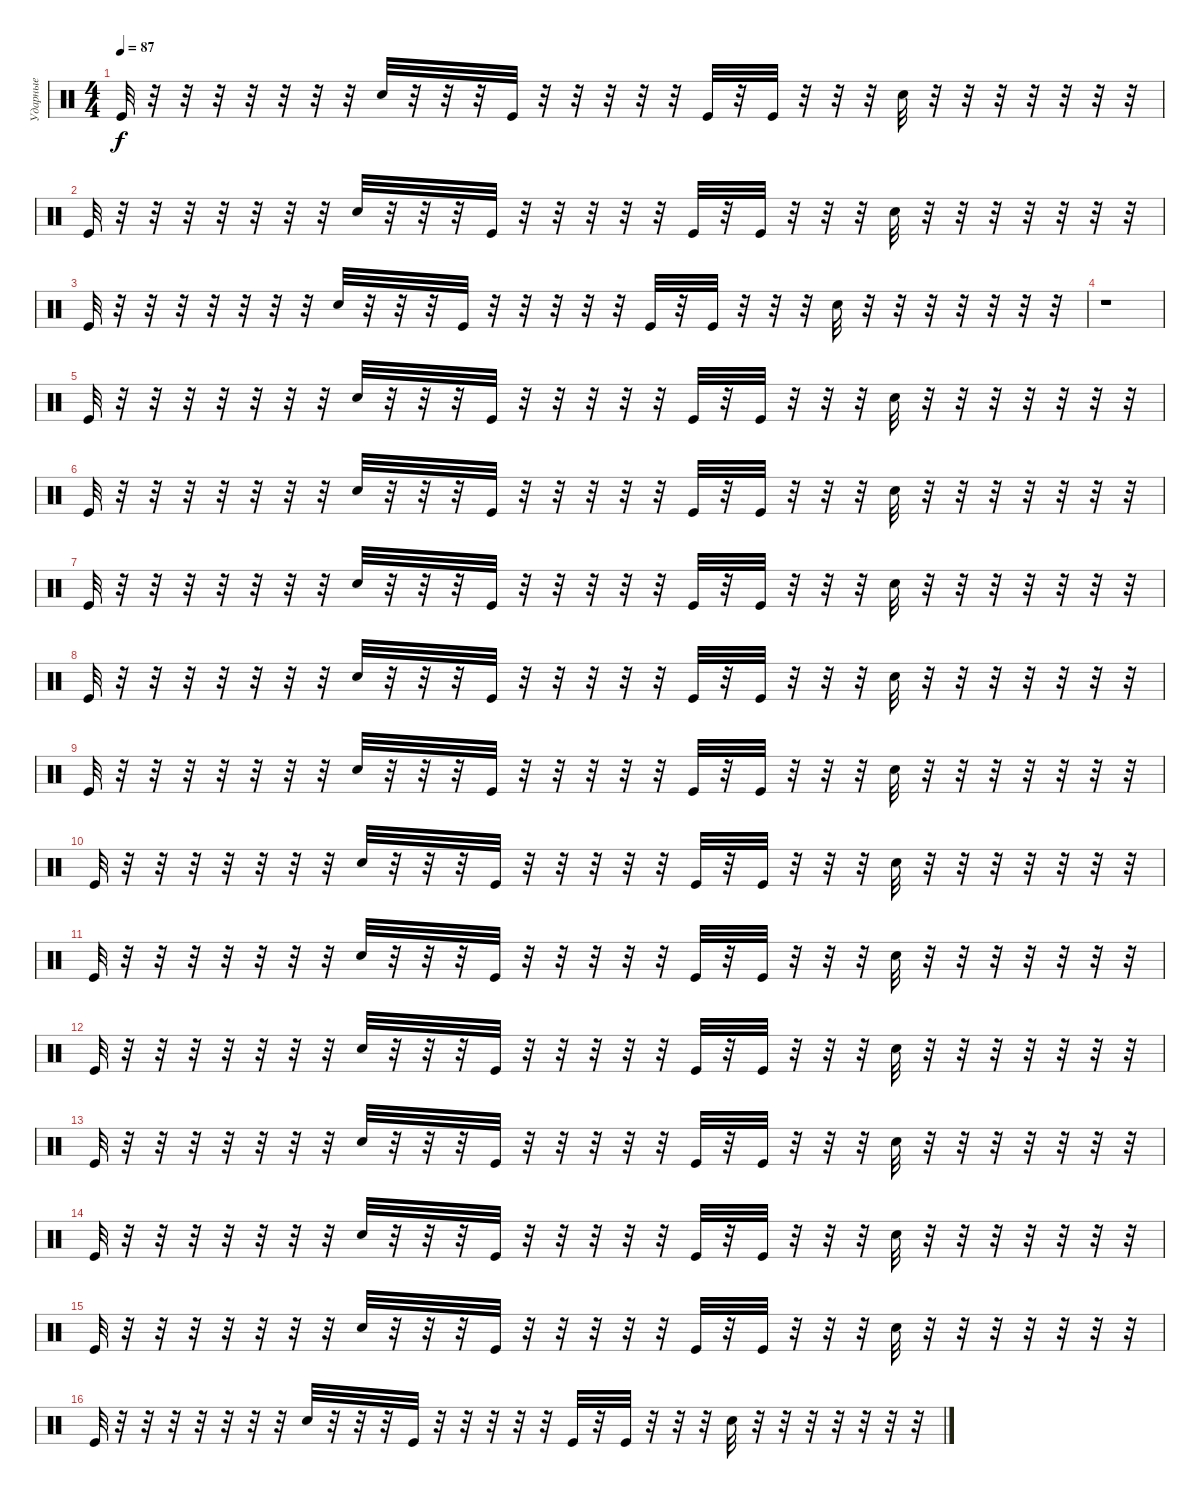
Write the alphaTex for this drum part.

\track ("Ударные" "Ударные") {instrument percussion}
\staff {score}
\articulation defaults
\ts (4 4)
\tempo 87
\clef neutral
\ks c "Kick (hit)".32{dy f}
r.32 r.32 r.32 r.32 r.32 r.32 r.32 "Hand Clap (hit)".32 r.32 r.32 r.32 "Kick (hit)".32 r.32 r.32 r.32 r.32 r.32 "Kick (hit)".32 r.32 "Kick (hit)".32 r.32 r.32 r.32 "Hand Clap (hit)".32 r.32 r.32 r.32 r.32 r.32 r.32 r.32 |
"Kick (hit)".32 r.32 r.32 r.32 r.32 r.32 r.32 r.32 "Hand Clap (hit)".32 r.32 r.32 r.32 "Kick (hit)".32 r.32 r.32 r.32 r.32 r.32 "Kick (hit)".32 r.32 "Kick (hit)".32 r.32 r.32 r.32 "Hand Clap (hit)".32 r.32 r.32 r.32 r.32 r.32 r.32 r.32 |
"Kick (hit)".32 r.32 r.32 r.32 r.32 r.32 r.32 r.32 "Hand Clap (hit)".32 r.32 r.32 r.32 "Kick (hit)".32 r.32 r.32 r.32 r.32 r.32 "Kick (hit)".32 r.32 "Kick (hit)".32 r.32 r.32 r.32 "Hand Clap (hit)".32 r.32 r.32 r.32 r.32 r.32 r.32 r.32 |
r.1 |
"Kick (hit)".32 r.32 r.32 r.32 r.32 r.32 r.32 r.32 "Hand Clap (hit)".32 r.32 r.32 r.32 "Kick (hit)".32 r.32 r.32 r.32 r.32 r.32 "Kick (hit)".32 r.32 "Kick (hit)".32 r.32 r.32 r.32 "Hand Clap (hit)".32 r.32 r.32 r.32 r.32 r.32 r.32 r.32 |
"Kick (hit)".32 r.32 r.32 r.32 r.32 r.32 r.32 r.32 "Hand Clap (hit)".32 r.32 r.32 r.32 "Kick (hit)".32 r.32 r.32 r.32 r.32 r.32 "Kick (hit)".32 r.32 "Kick (hit)".32 r.32 r.32 r.32 "Hand Clap (hit)".32 r.32 r.32 r.32 r.32 r.32 r.32 r.32 |
"Kick (hit)".32 r.32 r.32 r.32 r.32 r.32 r.32 r.32 "Hand Clap (hit)".32 r.32 r.32 r.32 "Kick (hit)".32 r.32 r.32 r.32 r.32 r.32 "Kick (hit)".32 r.32 "Kick (hit)".32 r.32 r.32 r.32 "Hand Clap (hit)".32 r.32 r.32 r.32 r.32 r.32 r.32 r.32 |
"Kick (hit)".32 r.32 r.32 r.32 r.32 r.32 r.32 r.32 "Hand Clap (hit)".32 r.32 r.32 r.32 "Kick (hit)".32 r.32 r.32 r.32 r.32 r.32 "Kick (hit)".32 r.32 "Kick (hit)".32 r.32 r.32 r.32 "Hand Clap (hit)".32 r.32 r.32 r.32 r.32 r.32 r.32 r.32 |
"Kick (hit)".32 r.32 r.32 r.32 r.32 r.32 r.32 r.32 "Hand Clap (hit)".32 r.32 r.32 r.32 "Kick (hit)".32 r.32 r.32 r.32 r.32 r.32 "Kick (hit)".32 r.32 "Kick (hit)".32 r.32 r.32 r.32 "Hand Clap (hit)".32 r.32 r.32 r.32 r.32 r.32 r.32 r.32 |
"Kick (hit)".32 r.32 r.32 r.32 r.32 r.32 r.32 r.32 "Hand Clap (hit)".32 r.32 r.32 r.32 "Kick (hit)".32 r.32 r.32 r.32 r.32 r.32 "Kick (hit)".32 r.32 "Kick (hit)".32 r.32 r.32 r.32 "Hand Clap (hit)".32 r.32 r.32 r.32 r.32 r.32 r.32 r.32 |
"Kick (hit)".32 r.32 r.32 r.32 r.32 r.32 r.32 r.32 "Hand Clap (hit)".32 r.32 r.32 r.32 "Kick (hit)".32 r.32 r.32 r.32 r.32 r.32 "Kick (hit)".32 r.32 "Kick (hit)".32 r.32 r.32 r.32 "Hand Clap (hit)".32 r.32 r.32 r.32 r.32 r.32 r.32 r.32 |
"Kick (hit)".32 r.32 r.32 r.32 r.32 r.32 r.32 r.32 "Hand Clap (hit)".32 r.32 r.32 r.32 "Kick (hit)".32 r.32 r.32 r.32 r.32 r.32 "Kick (hit)".32 r.32 "Kick (hit)".32 r.32 r.32 r.32 "Hand Clap (hit)".32 r.32 r.32 r.32 r.32 r.32 r.32 r.32 |
"Kick (hit)".32 r.32 r.32 r.32 r.32 r.32 r.32 r.32 "Hand Clap (hit)".32 r.32 r.32 r.32 "Kick (hit)".32 r.32 r.32 r.32 r.32 r.32 "Kick (hit)".32 r.32 "Kick (hit)".32 r.32 r.32 r.32 "Hand Clap (hit)".32 r.32 r.32 r.32 r.32 r.32 r.32 r.32 |
"Kick (hit)".32 r.32 r.32 r.32 r.32 r.32 r.32 r.32 "Hand Clap (hit)".32 r.32 r.32 r.32 "Kick (hit)".32 r.32 r.32 r.32 r.32 r.32 "Kick (hit)".32 r.32 "Kick (hit)".32 r.32 r.32 r.32 "Hand Clap (hit)".32 r.32 r.32 r.32 r.32 r.32 r.32 r.32 |
"Kick (hit)".32 r.32 r.32 r.32 r.32 r.32 r.32 r.32 "Hand Clap (hit)".32 r.32 r.32 r.32 "Kick (hit)".32 r.32 r.32 r.32 r.32 r.32 "Kick (hit)".32 r.32 "Kick (hit)".32 r.32 r.32 r.32 "Hand Clap (hit)".32 r.32 r.32 r.32 r.32 r.32 r.32 r.32 |
"Kick (hit)".32 r.32 r.32 r.32 r.32 r.32 r.32 r.32 "Hand Clap (hit)".32 r.32 r.32 r.32 "Kick (hit)".32 r.32 r.32 r.32 r.32 r.32 "Kick (hit)".32 r.32 "Kick (hit)".32 r.32 r.32 r.32 "Hand Clap (hit)".32 r.32 r.32 r.32 r.32 r.32 r.32 r.32
